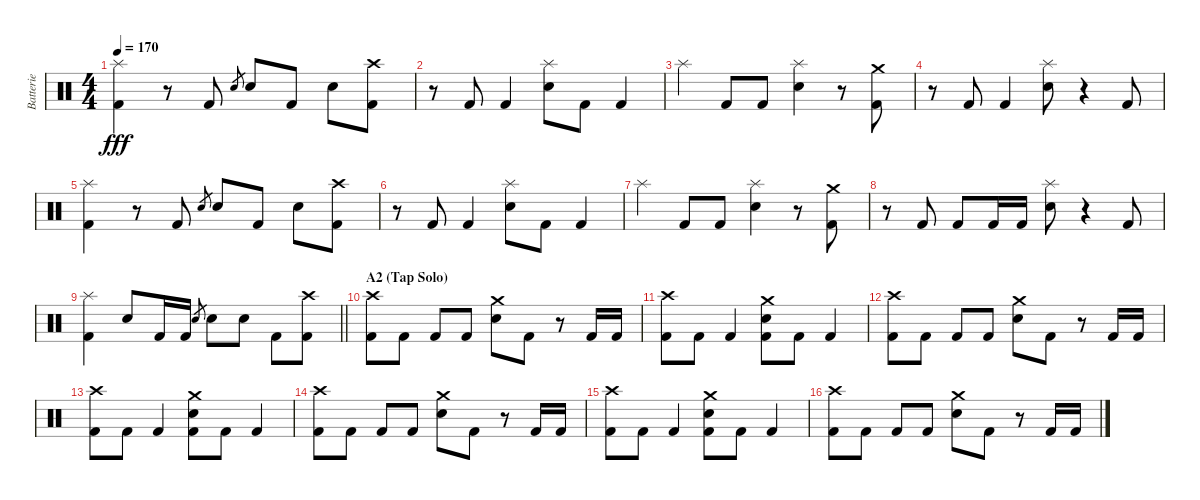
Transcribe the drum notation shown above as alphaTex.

\track ("Batterie" "Batterie") {instrument percussion}
\staff {score}
\articulation defaults
\ts (4 4)
\tempo 170
\clef neutral
\ks c
("Splash (hit)" "Kick (hit) 2").4{dy fff} r.8 "Kick (hit) 2".8 "Electric Snare (hit)".8{gr} "Electric Snare (hit)".8 "Kick (hit) 2".8 "Electric Snare (hit)".8 ("Crash high (hit)" "Kick (hit) 2").8 |
r.8 "Kick (hit) 2".8 "Kick (hit) 2".4 ("Splash (hit)" "Electric Snare (hit)").8 "Kick (hit) 2".8 "Kick (hit) 2".4 |
"Splash (hit)".4 "Kick (hit) 2".8 "Kick (hit) 2".8 ("Splash (hit)" "Electric Snare (hit)").4 r.8 ("Crash medium (hit)" "Kick (hit) 2").8 |
r.8 "Kick (hit) 2".8 "Kick (hit) 2".4 ("Splash (hit)" "Electric Snare (hit)").8 r.4 "Kick (hit) 2".8 |
("Splash (hit)" "Kick (hit) 2").4 r.8 "Kick (hit) 2".8 "Electric Snare (hit)".8{gr} "Electric Snare (hit)".8 "Kick (hit) 2".8 "Electric Snare (hit)".8 ("Crash high (hit)" "Kick (hit) 2").8 |
r.8 "Kick (hit) 2".8 "Kick (hit) 2".4 ("Splash (hit)" "Electric Snare (hit)").8 "Kick (hit) 2".8 "Kick (hit) 2".4 |
"Splash (hit)".4 "Kick (hit) 2".8 "Kick (hit) 2".8 ("Splash (hit)" "Electric Snare (hit)").4 r.8 ("Crash medium (hit)" "Kick (hit) 2").8 |
r.8 "Kick (hit) 2".8 "Kick (hit) 2".8 "Kick (hit) 2".16 "Kick (hit) 2".16 ("Splash (hit)" "Electric Snare (hit)").8 r.4 "Kick (hit) 2".8 |
\barLineRight lightlight
("Splash (hit)" "Kick (hit) 2").4 "Electric Snare (hit)".8 "Kick (hit) 2".16 "Kick (hit) 2".16 "Electric Snare (hit)".8{gr} "Electric Snare (hit)".8 "Electric Snare (hit)".8 "Kick (hit) 2".8 ("Crash high (hit)" "Kick (hit) 2").8 |
\section ("" "A2 (Tap Solo)")
("Crash high (hit)" "Kick (hit) 2").8 "Kick (hit) 2".8 "Kick (hit) 2".8 "Kick (hit) 2".8 ("Crash medium (hit)" "Electric Snare (hit)").8 "Kick (hit) 2".8 r.8 "Kick (hit) 2".16 "Kick (hit) 2".16 |
("Crash high (hit)" "Kick (hit) 2").8 "Kick (hit) 2".8 "Kick (hit) 2".4 ("Crash medium (hit)" "Electric Snare (hit)" "Kick (hit) 2").8 "Kick (hit) 2".8 "Kick (hit) 2".4 |
("Crash high (hit)" "Kick (hit) 2").8 "Kick (hit) 2".8 "Kick (hit) 2".8 "Kick (hit) 2".8 ("Crash medium (hit)" "Electric Snare (hit)").8 "Kick (hit) 2".8 r.8 "Kick (hit) 2".16 "Kick (hit) 2".16 |
("Crash high (hit)" "Kick (hit) 2").8 "Kick (hit) 2".8 "Kick (hit) 2".4 ("Crash medium (hit)" "Electric Snare (hit)" "Kick (hit) 2").8 "Kick (hit) 2".8 "Kick (hit) 2".4 |
("Crash high (hit)" "Kick (hit) 2").8 "Kick (hit) 2".8 "Kick (hit) 2".8 "Kick (hit) 2".8 ("Crash medium (hit)" "Electric Snare (hit)").8 "Kick (hit) 2".8 r.8 "Kick (hit) 2".16 "Kick (hit) 2".16 |
("Crash high (hit)" "Kick (hit) 2").8 "Kick (hit) 2".8 "Kick (hit) 2".4 ("Crash medium (hit)" "Electric Snare (hit)" "Kick (hit) 2").8 "Kick (hit) 2".8 "Kick (hit) 2".4 |
("Crash high (hit)" "Kick (hit) 2").8 "Kick (hit) 2".8 "Kick (hit) 2".8 "Kick (hit) 2".8 ("Crash medium (hit)" "Electric Snare (hit)").8 "Kick (hit) 2".8 r.8 "Kick (hit) 2".16 "Kick (hit) 2".16
